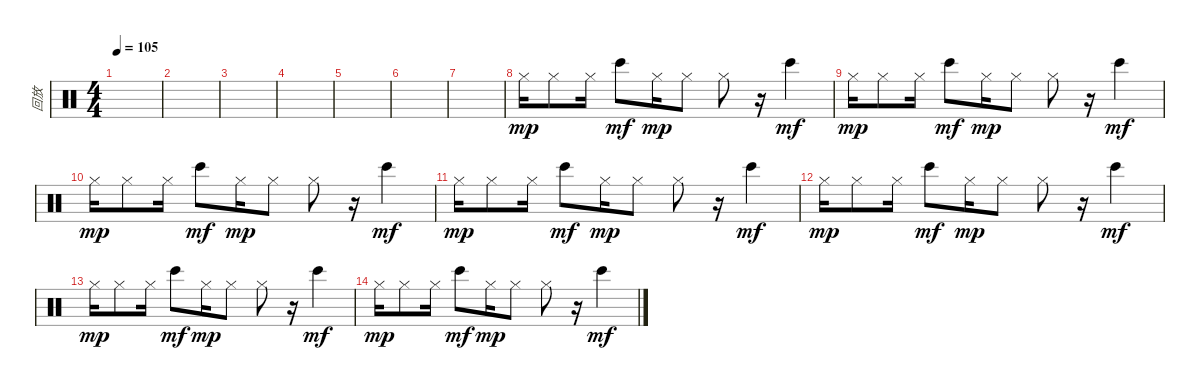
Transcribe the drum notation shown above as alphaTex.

\track ("回放" "回放") {instrument percussion}
\staff {score}
\articulation defaults
\ts (4 4)
\tempo 105
\clef neutral
\ks c
|
|
|
|
|
|
|
"Hi-Hat (closed)".16{dy mp} "Hi-Hat (closed)".8 "Hi-Hat (closed)".16 "Bongo High (hit)".8{dy mf} "Hi-Hat (closed)".16{dy mp} "Hi-Hat (closed)".8 "Hi-Hat (closed)".8 r.16 "Bongo High (hit)".4{dy mf} |
"Hi-Hat (closed)".16{dy mp} "Hi-Hat (closed)".8 "Hi-Hat (closed)".16 "Bongo High (hit)".8{dy mf} "Hi-Hat (closed)".16{dy mp} "Hi-Hat (closed)".8 "Hi-Hat (closed)".8 r.16 "Bongo High (hit)".4{dy mf} |
"Hi-Hat (closed)".16{dy mp} "Hi-Hat (closed)".8 "Hi-Hat (closed)".16 "Bongo High (hit)".8{dy mf} "Hi-Hat (closed)".16{dy mp} "Hi-Hat (closed)".8 "Hi-Hat (closed)".8 r.16 "Bongo High (hit)".4{dy mf} |
"Hi-Hat (closed)".16{dy mp} "Hi-Hat (closed)".8 "Hi-Hat (closed)".16 "Bongo High (hit)".8{dy mf} "Hi-Hat (closed)".16{dy mp} "Hi-Hat (closed)".8 "Hi-Hat (closed)".8 r.16 "Bongo High (hit)".4{dy mf} |
"Hi-Hat (closed)".16{dy mp} "Hi-Hat (closed)".8 "Hi-Hat (closed)".16 "Bongo High (hit)".8{dy mf} "Hi-Hat (closed)".16{dy mp} "Hi-Hat (closed)".8 "Hi-Hat (closed)".8 r.16 "Bongo High (hit)".4{dy mf} |
"Hi-Hat (closed)".16{dy mp} "Hi-Hat (closed)".8 "Hi-Hat (closed)".16 "Bongo High (hit)".8{dy mf} "Hi-Hat (closed)".16{dy mp} "Hi-Hat (closed)".8 "Hi-Hat (closed)".8 r.16 "Bongo High (hit)".4{dy mf} |
"Hi-Hat (closed)".16{dy mp} "Hi-Hat (closed)".8 "Hi-Hat (closed)".16 "Bongo High (hit)".8{dy mf} "Hi-Hat (closed)".16{dy mp} "Hi-Hat (closed)".8 "Hi-Hat (closed)".8 r.16 "Bongo High (hit)".4{dy mf}
